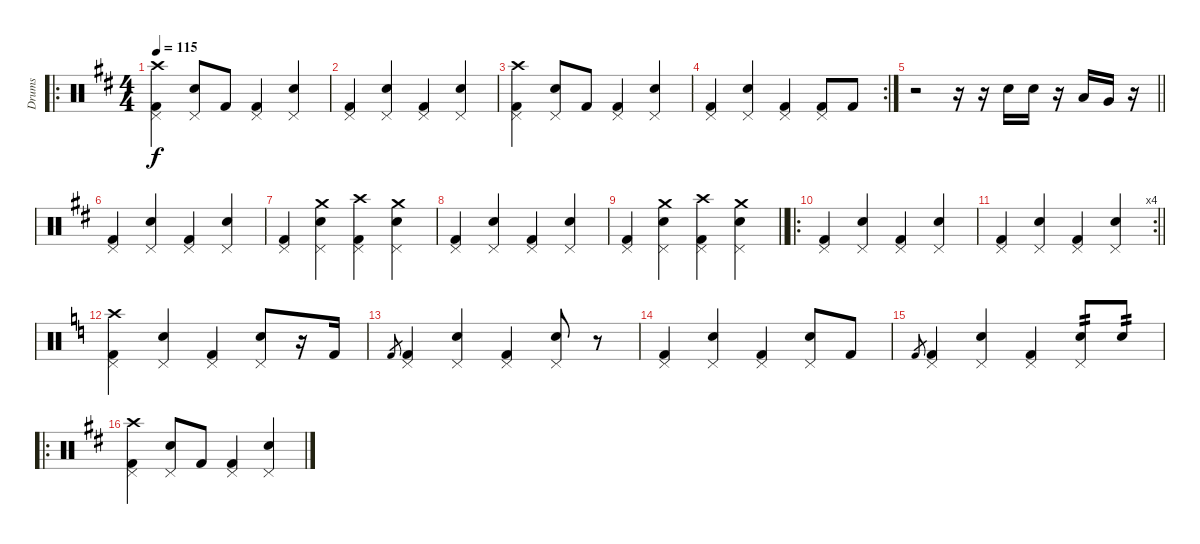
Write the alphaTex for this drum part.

\track ("Drums" "Drums") {instrument percussion}
\staff {score}
\articulation defaults
\ro
\ts (4 4)
\tempo 115
\clef neutral
\ks d
("Kick (hit) 2" "Pedal Hi-Hat (hit)" "Crash high (hit)").4{dy f} ("Snare (hit) 2" "Pedal Hi-Hat (hit)").8 "Kick (hit) 2".8 ("Kick (hit) 2" "Pedal Hi-Hat (hit)").4 ("Snare (hit) 2" "Pedal Hi-Hat (hit)").4 |
("Kick (hit) 2" "Pedal Hi-Hat (hit)").4 ("Snare (hit) 2" "Pedal Hi-Hat (hit)").4 ("Kick (hit) 2" "Pedal Hi-Hat (hit)").4 ("Snare (hit) 2" "Pedal Hi-Hat (hit)").4 |
("Kick (hit) 2" "Pedal Hi-Hat (hit)" "Crash high (hit)").4 ("Snare (hit) 2" "Pedal Hi-Hat (hit)").8 "Kick (hit) 2".8 ("Kick (hit) 2" "Pedal Hi-Hat (hit)").4 ("Snare (hit) 2" "Pedal Hi-Hat (hit)").4 |
\rc 2
("Kick (hit) 2" "Pedal Hi-Hat (hit)").4 ("Snare (hit) 2" "Pedal Hi-Hat (hit)").4 ("Kick (hit) 2" "Pedal Hi-Hat (hit)").4 ("Kick (hit) 2" "Pedal Hi-Hat (hit)").8 "Kick (hit) 2".8 |
\barLineRight lightlight
r.2 r.16 r.16 "Snare (hit) 2".16 "Snare (hit) 2".16 r.16 "Low Tom (hit)".16 "Very Low Tom (hit)".16 r.16 |
("Kick (hit) 2" "Pedal Hi-Hat (hit)").4 ("Snare (hit) 2" "Pedal Hi-Hat (hit)").4 ("Kick (hit) 2" "Pedal Hi-Hat (hit)").4 ("Snare (hit) 2" "Pedal Hi-Hat (hit)").4 |
("Kick (hit) 2" "Pedal Hi-Hat (hit)").4 ("Snare (hit) 2" "Pedal Hi-Hat (hit)" "Crash medium (hit)").4 ("Kick (hit) 2" "Pedal Hi-Hat (hit)" "Crash high (hit)").4 ("Snare (hit) 2" "Pedal Hi-Hat (hit)" "Crash medium (hit)").4 |
("Kick (hit) 2" "Pedal Hi-Hat (hit)").4 ("Snare (hit) 2" "Pedal Hi-Hat (hit)").4 ("Kick (hit) 2" "Pedal Hi-Hat (hit)").4 ("Snare (hit) 2" "Pedal Hi-Hat (hit)").4 |
\barLineRight lightlight
("Kick (hit) 2" "Pedal Hi-Hat (hit)").4 ("Snare (hit) 2" "Pedal Hi-Hat (hit)" "Crash medium (hit)").4 ("Kick (hit) 2" "Pedal Hi-Hat (hit)" "Crash high (hit)").4 ("Snare (hit) 2" "Pedal Hi-Hat (hit)" "Crash medium (hit)").4 |
\ro
("Kick (hit) 2" "Pedal Hi-Hat (hit)").4 ("Snare (hit) 2" "Pedal Hi-Hat (hit)").4 ("Kick (hit) 2" "Pedal Hi-Hat (hit)").4 ("Snare (hit) 2" "Pedal Hi-Hat (hit)").4 |
\rc 4
\barLineRight lightlight
("Kick (hit) 2" "Pedal Hi-Hat (hit)").4 ("Snare (hit) 2" "Pedal Hi-Hat (hit)").4 ("Kick (hit) 2" "Pedal Hi-Hat (hit)").4 ("Snare (hit) 2" "Pedal Hi-Hat (hit)").4 |
\ks c
("Kick (hit) 2" "Pedal Hi-Hat (hit)" "Crash high (hit)").4 ("Snare (hit) 2" "Pedal Hi-Hat (hit)").4 ("Kick (hit) 2" "Pedal Hi-Hat (hit)").4 ("Snare (hit) 2" "Pedal Hi-Hat (hit)").8 r.16 "Kick (hit) 2".16 |
"Kick (hit) 2".8{gr} ("Kick (hit) 2" "Pedal Hi-Hat (hit)").4 ("Snare (hit) 2" "Pedal Hi-Hat (hit)").4 ("Kick (hit) 2" "Pedal Hi-Hat (hit)").4 ("Snare (hit) 2" "Pedal Hi-Hat (hit)").8 r.8 |
("Kick (hit) 2" "Pedal Hi-Hat (hit)").4 ("Snare (hit) 2" "Pedal Hi-Hat (hit)").4 ("Kick (hit) 2" "Pedal Hi-Hat (hit)").4 ("Snare (hit) 2" "Pedal Hi-Hat (hit)").8 "Kick (hit) 2".8 |
"Kick (hit) 2".8{gr} ("Kick (hit) 2" "Pedal Hi-Hat (hit)").4 ("Snare (hit) 2" "Pedal Hi-Hat (hit)").4 ("Kick (hit) 2" "Pedal Hi-Hat (hit)").4 ("Snare (hit) 2" "Pedal Hi-Hat (hit)").8{tp 2} "Snare (hit) 2".8{tp 2} |
\ro
\ks d
("Kick (hit) 2" "Pedal Hi-Hat (hit)" "Crash high (hit)").4 ("Snare (hit) 2" "Pedal Hi-Hat (hit)").8 "Kick (hit) 2".8 ("Kick (hit) 2" "Pedal Hi-Hat (hit)").4 ("Snare (hit) 2" "Pedal Hi-Hat (hit)").4
